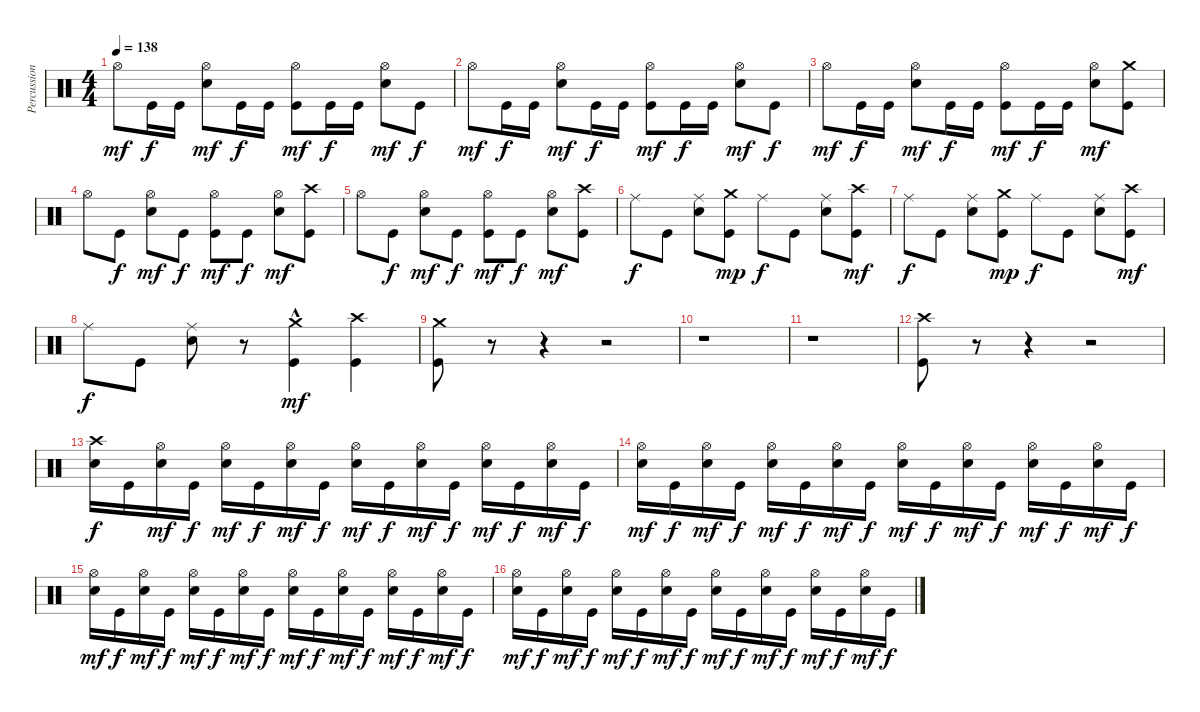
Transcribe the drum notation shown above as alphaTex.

\track ("Percussions" "Percussion") {instrument percussion}
\staff {score}
\articulation defaults
\ts (4 4)
\tempo 138
\clef neutral
\ks c "Hi-Hat (open)".8{dy mf} "Kick (hit)".16{dy f} "Kick (hit)".16
("Electric Snare (hit)" "Hi-Hat (open)").8{dy mf} "Kick (hit)".16{dy f} "Kick (hit)".16 ("Kick (hit)" "Hi-Hat (open)").8{dy mf} "Kick (hit)".16{dy f} "Kick (hit)".16 ("Electric Snare (hit)" "Hi-Hat (open)").8{dy mf} "Kick (hit)".8{dy f} |
"Hi-Hat (open)".8{dy mf} "Kick (hit)".16{dy f} "Kick (hit)".16 ("Electric Snare (hit)" "Hi-Hat (open)").8{dy mf} "Kick (hit)".16{dy f} "Kick (hit)".16 ("Kick (hit)" "Hi-Hat (open)").8{dy mf} "Kick (hit)".16{dy f} "Kick (hit)".16 ("Electric Snare (hit)" "Hi-Hat (open)").8{dy mf} "Kick (hit)".8{dy f} |
"Hi-Hat (open)".8{dy mf} "Kick (hit)".16{dy f} "Kick (hit)".16 ("Electric Snare (hit)" "Hi-Hat (open)").8{dy mf} "Kick (hit)".16{dy f} "Kick (hit)".16 ("Kick (hit)" "Hi-Hat (open)").8{dy mf} "Kick (hit)".16{dy f} "Kick (hit)".16 ("Electric Snare (hit)" "Hi-Hat (open)").8{dy mf} ("Kick (hit)" "Crash medium (hit)").8 |
"Hi-Hat (open)".8 "Kick (hit)".8{dy f} ("Electric Snare (hit)" "Hi-Hat (open)").8{dy mf} "Kick (hit)".8{dy f} ("Kick (hit)" "Hi-Hat (open)").8{dy mf} "Kick (hit)".8{dy f} ("Electric Snare (hit)" "Hi-Hat (open)").8{dy mf} ("Kick (hit)" "Crash high (hit)").8 |
"Hi-Hat (open)".8 "Kick (hit)".8{dy f} ("Electric Snare (hit)" "Hi-Hat (open)").8{dy mf} "Kick (hit)".8{dy f} ("Kick (hit)" "Hi-Hat (open)").8{dy mf} "Kick (hit)".8{dy f} ("Electric Snare (hit)" "Hi-Hat (open)").8{dy mf} ("Kick (hit)" "Crash high (hit)").8 |
"Ride (middle)".8{dy f} "Kick (hit)".8 ("Electric Snare (hit)" "Ride (middle)").8 ("Kick (hit)" "Crash medium (hit)").8{dy mp} "Ride (middle)".8{dy f} "Kick (hit)".8 ("Electric Snare (hit)" "Ride (middle)").8 ("Kick (hit)" "Crash high (hit)").8{dy mf} |
"Ride (middle)".8{dy f} "Kick (hit)".8 ("Electric Snare (hit)" "Ride (middle)").8 ("Kick (hit)" "Crash medium (hit)").8{dy mp} "Ride (middle)".8{dy f} "Kick (hit)".8 ("Electric Snare (hit)" "Ride (middle)").8 ("Kick (hit)" "Crash high (hit)").8{dy mf} |
"Ride (middle)".8{dy f} "Kick (hit)".8 ("Electric Snare (hit)" "Ride (middle)").8 r.8 ("Kick (hit)"{hac} "Crash medium (hit)").4{dy mf} ("Kick (hit)" "Crash high (hit)").4 |
("Kick (hit)" "Crash medium (hit)").8 r.8 r.4 r.2 |
r.1 |
r.1 |
("Kick (hit)" "Crash high (hit)").8 r.8 r.4 r.2 |
("Electric Snare (hit)" "Crash high (hit)").16{dy f} "Kick (hit)".16 ("Electric Snare (hit)" "Hi-Hat (open)").16{dy mf} "Kick (hit)".16{dy f} ("Electric Snare (hit)" "Hi-Hat (open)").16{dy mf} "Kick (hit)".16{dy f} ("Electric Snare (hit)" "Hi-Hat (open)").16{dy mf} "Kick (hit)".16{dy f} ("Electric Snare (hit)" "Hi-Hat (open)").16{dy mf} "Kick (hit)".16{dy f} ("Electric Snare (hit)" "Hi-Hat (open)").16{dy mf} "Kick (hit)".16{dy f} ("Electric Snare (hit)" "Hi-Hat (open)").16{dy mf} "Kick (hit)".16{dy f} ("Electric Snare (hit)" "Hi-Hat (open)").16{dy mf} "Kick (hit)".16{dy f} |
("Electric Snare (hit)" "Hi-Hat (open)").16{dy mf} "Kick (hit)".16{dy f} ("Electric Snare (hit)" "Hi-Hat (open)").16{dy mf} "Kick (hit)".16{dy f} ("Electric Snare (hit)" "Hi-Hat (open)").16{dy mf} "Kick (hit)".16{dy f} ("Electric Snare (hit)" "Hi-Hat (open)").16{dy mf} "Kick (hit)".16{dy f} ("Electric Snare (hit)" "Hi-Hat (open)").16{dy mf} "Kick (hit)".16{dy f} ("Electric Snare (hit)" "Hi-Hat (open)").16{dy mf} "Kick (hit)".16{dy f} ("Electric Snare (hit)" "Hi-Hat (open)").16{dy mf} "Kick (hit)".16{dy f} ("Electric Snare (hit)" "Hi-Hat (open)").16{dy mf} "Kick (hit)".16{dy f} |
("Electric Snare (hit)" "Hi-Hat (open)").16{dy mf} "Kick (hit)".16{dy f} ("Electric Snare (hit)" "Hi-Hat (open)").16{dy mf} "Kick (hit)".16{dy f} ("Electric Snare (hit)" "Hi-Hat (open)").16{dy mf} "Kick (hit)".16{dy f} ("Electric Snare (hit)" "Hi-Hat (open)").16{dy mf} "Kick (hit)".16{dy f} ("Electric Snare (hit)" "Hi-Hat (open)").16{dy mf} "Kick (hit)".16{dy f} ("Electric Snare (hit)" "Hi-Hat (open)").16{dy mf} "Kick (hit)".16{dy f} ("Electric Snare (hit)" "Hi-Hat (open)").16{dy mf} "Kick (hit)".16{dy f} ("Electric Snare (hit)" "Hi-Hat (open)").16{dy mf} "Kick (hit)".16{dy f} |
("Electric Snare (hit)" "Hi-Hat (open)").16{dy mf} "Kick (hit)".16{dy f} ("Electric Snare (hit)" "Hi-Hat (open)").16{dy mf} "Kick (hit)".16{dy f} ("Electric Snare (hit)" "Hi-Hat (open)").16{dy mf} "Kick (hit)".16{dy f} ("Electric Snare (hit)" "Hi-Hat (open)").16{dy mf} "Kick (hit)".16{dy f} ("Electric Snare (hit)" "Hi-Hat (open)").16{dy mf} "Kick (hit)".16{dy f} ("Electric Snare (hit)" "Hi-Hat (open)").16{dy mf} "Kick (hit)".16{dy f} ("Electric Snare (hit)" "Hi-Hat (open)").16{dy mf} "Kick (hit)".16{dy f} ("Electric Snare (hit)" "Hi-Hat (open)").16{dy mf} "Kick (hit)".16{dy f}
